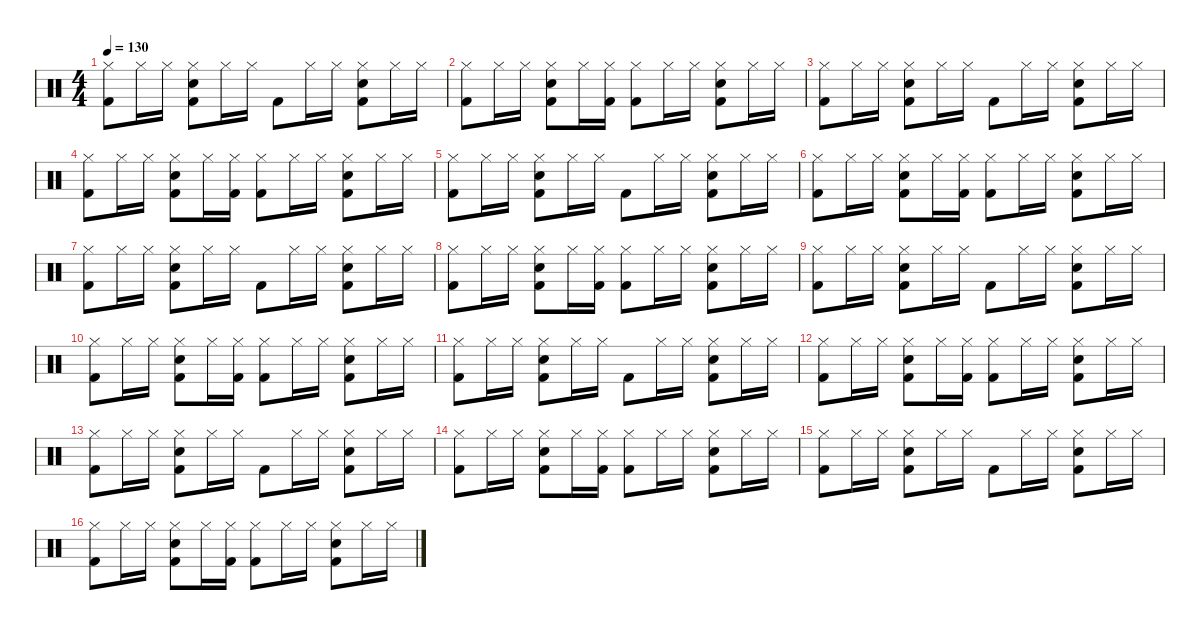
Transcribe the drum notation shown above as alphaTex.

\defaultSystemsLayout 4
\hideDynamics
\bracketExtendMode nobrackets
\singleTrackTrackNamePolicy hidden
\multiTrackTrackNamePolicy hidden
\otherSystemsTrackNameOrientation horizontal
\track ("Percussion" "drm.") {defaultSystemsLayout 4 instrument percussion}
\staff {score}
\articulation defaults
\ts (4 4)
\tempo 130
\clef neutral
\ks c
("Hi-Hat (closed)" "Kick (hit) 2").8{dy f beam Down} "Hi-Hat (closed)".16{beam Down} "Hi-Hat (closed)".16{beam Down} ("Hi-Hat (closed)" "Snare (hit) 2" "Kick (hit) 2").8{beam Down} "Hi-Hat (closed)".16{beam Down} "Hi-Hat (closed)".16{beam Down} "Kick (hit) 2".8{beam Down} "Hi-Hat (closed)".16{beam Down} "Hi-Hat (closed)".16{beam Down} ("Hi-Hat (closed)" "Snare (hit) 2" "Kick (hit) 2").8{beam Down} "Hi-Hat (closed)".16{beam Down} "Hi-Hat (closed)".16{beam Down} |
("Hi-Hat (closed)" "Kick (hit) 2").8{beam Down} "Hi-Hat (closed)".16{beam Down} "Hi-Hat (closed)".16{beam Down} ("Hi-Hat (closed)" "Snare (hit) 2" "Kick (hit) 2").8{beam Down} "Hi-Hat (closed)".16{beam Down} ("Hi-Hat (closed)" "Kick (hit) 2").16{beam Down} ("Hi-Hat (closed)" "Kick (hit) 2").8{beam Down} "Hi-Hat (closed)".16{beam Down} "Hi-Hat (closed)".16{beam Down} ("Hi-Hat (closed)" "Snare (hit) 2" "Kick (hit) 2").8{beam Down} "Hi-Hat (closed)".16{beam Down} "Hi-Hat (closed)".16{beam Down} |
("Hi-Hat (closed)" "Kick (hit) 2").8{beam Down} "Hi-Hat (closed)".16{beam Down} "Hi-Hat (closed)".16{beam Down} ("Hi-Hat (closed)" "Snare (hit) 2" "Kick (hit) 2").8{beam Down} "Hi-Hat (closed)".16{beam Down} "Hi-Hat (closed)".16{beam Down} "Kick (hit) 2".8{beam Down} "Hi-Hat (closed)".16{beam Down} "Hi-Hat (closed)".16{beam Down} ("Hi-Hat (closed)" "Snare (hit) 2" "Kick (hit) 2").8{beam Down} "Hi-Hat (closed)".16{beam Down} "Hi-Hat (closed)".16{beam Down} |
("Hi-Hat (closed)" "Kick (hit) 2").8{beam Down} "Hi-Hat (closed)".16{beam Down} "Hi-Hat (closed)".16{beam Down} ("Hi-Hat (closed)" "Snare (hit) 2" "Kick (hit) 2").8{beam Down} "Hi-Hat (closed)".16{beam Down} ("Hi-Hat (closed)" "Kick (hit) 2").16{beam Down} ("Hi-Hat (closed)" "Kick (hit) 2").8{beam Down} "Hi-Hat (closed)".16{beam Down} "Hi-Hat (closed)".16{beam Down} ("Hi-Hat (closed)" "Snare (hit) 2" "Kick (hit) 2").8{beam Down} "Hi-Hat (closed)".16{beam Down} "Hi-Hat (closed)".16{beam Down} |
("Hi-Hat (closed)" "Kick (hit) 2").8{beam Down} "Hi-Hat (closed)".16{beam Down} "Hi-Hat (closed)".16{beam Down} ("Hi-Hat (closed)" "Snare (hit) 2" "Kick (hit) 2").8{beam Down} "Hi-Hat (closed)".16{beam Down} "Hi-Hat (closed)".16{beam Down} "Kick (hit) 2".8{beam Down} "Hi-Hat (closed)".16{beam Down} "Hi-Hat (closed)".16{beam Down} ("Hi-Hat (closed)" "Snare (hit) 2" "Kick (hit) 2").8{beam Down} "Hi-Hat (closed)".16{beam Down} "Hi-Hat (closed)".16{beam Down} |
("Hi-Hat (closed)" "Kick (hit) 2").8{beam Down} "Hi-Hat (closed)".16{beam Down} "Hi-Hat (closed)".16{beam Down} ("Hi-Hat (closed)" "Snare (hit) 2" "Kick (hit) 2").8{beam Down} "Hi-Hat (closed)".16{beam Down} ("Hi-Hat (closed)" "Kick (hit) 2").16{beam Down} ("Hi-Hat (closed)" "Kick (hit) 2").8{beam Down} "Hi-Hat (closed)".16{beam Down} "Hi-Hat (closed)".16{beam Down} ("Hi-Hat (closed)" "Snare (hit) 2" "Kick (hit) 2").8{beam Down} "Hi-Hat (closed)".16{beam Down} "Hi-Hat (closed)".16{beam Down} |
("Hi-Hat (closed)" "Kick (hit) 2").8{beam Down} "Hi-Hat (closed)".16{beam Down} "Hi-Hat (closed)".16{beam Down} ("Hi-Hat (closed)" "Snare (hit) 2" "Kick (hit) 2").8{beam Down} "Hi-Hat (closed)".16{beam Down} "Hi-Hat (closed)".16{beam Down} "Kick (hit) 2".8{beam Down} "Hi-Hat (closed)".16{beam Down} "Hi-Hat (closed)".16{beam Down} ("Hi-Hat (closed)" "Snare (hit) 2" "Kick (hit) 2").8{beam Down} "Hi-Hat (closed)".16{beam Down} "Hi-Hat (closed)".16{beam Down} |
("Hi-Hat (closed)" "Kick (hit) 2").8{beam Down} "Hi-Hat (closed)".16{beam Down} "Hi-Hat (closed)".16{beam Down} ("Hi-Hat (closed)" "Snare (hit) 2" "Kick (hit) 2").8{beam Down} "Hi-Hat (closed)".16{beam Down} ("Hi-Hat (closed)" "Kick (hit) 2").16{beam Down} ("Hi-Hat (closed)" "Kick (hit) 2").8{beam Down} "Hi-Hat (closed)".16{beam Down} "Hi-Hat (closed)".16{beam Down} ("Hi-Hat (closed)" "Snare (hit) 2" "Kick (hit) 2").8{beam Down} "Hi-Hat (closed)".16{beam Down} "Hi-Hat (closed)".16{beam Down} |
("Hi-Hat (closed)" "Kick (hit) 2").8{beam Down} "Hi-Hat (closed)".16{beam Down} "Hi-Hat (closed)".16{beam Down} ("Hi-Hat (closed)" "Snare (hit) 2" "Kick (hit) 2").8{beam Down} "Hi-Hat (closed)".16{beam Down} "Hi-Hat (closed)".16{beam Down} "Kick (hit) 2".8{beam Down} "Hi-Hat (closed)".16{beam Down} "Hi-Hat (closed)".16{beam Down} ("Hi-Hat (closed)" "Snare (hit) 2" "Kick (hit) 2").8{beam Down} "Hi-Hat (closed)".16{beam Down} "Hi-Hat (closed)".16{beam Down} |
("Hi-Hat (closed)" "Kick (hit) 2").8{beam Down} "Hi-Hat (closed)".16{beam Down} "Hi-Hat (closed)".16{beam Down} ("Hi-Hat (closed)" "Snare (hit) 2" "Kick (hit) 2").8{beam Down} "Hi-Hat (closed)".16{beam Down} ("Hi-Hat (closed)" "Kick (hit) 2").16{beam Down} ("Hi-Hat (closed)" "Kick (hit) 2").8{beam Down} "Hi-Hat (closed)".16{beam Down} "Hi-Hat (closed)".16{beam Down} ("Hi-Hat (closed)" "Snare (hit) 2" "Kick (hit) 2").8{beam Down} "Hi-Hat (closed)".16{beam Down} "Hi-Hat (closed)".16{beam Down} |
("Hi-Hat (closed)" "Kick (hit) 2").8{beam Down} "Hi-Hat (closed)".16{beam Down} "Hi-Hat (closed)".16{beam Down} ("Hi-Hat (closed)" "Snare (hit) 2" "Kick (hit) 2").8{beam Down} "Hi-Hat (closed)".16{beam Down} "Hi-Hat (closed)".16{beam Down} "Kick (hit) 2".8{beam Down} "Hi-Hat (closed)".16{beam Down} "Hi-Hat (closed)".16{beam Down} ("Hi-Hat (closed)" "Snare (hit) 2" "Kick (hit) 2").8{beam Down} "Hi-Hat (closed)".16{beam Down} "Hi-Hat (closed)".16{beam Down} |
("Hi-Hat (closed)" "Kick (hit) 2").8{beam Down} "Hi-Hat (closed)".16{beam Down} "Hi-Hat (closed)".16{beam Down} ("Hi-Hat (closed)" "Snare (hit) 2" "Kick (hit) 2").8{beam Down} "Hi-Hat (closed)".16{beam Down} ("Hi-Hat (closed)" "Kick (hit) 2").16{beam Down} ("Hi-Hat (closed)" "Kick (hit) 2").8{beam Down} "Hi-Hat (closed)".16{beam Down} "Hi-Hat (closed)".16{beam Down} ("Hi-Hat (closed)" "Snare (hit) 2" "Kick (hit) 2").8{beam Down} "Hi-Hat (closed)".16{beam Down} "Hi-Hat (closed)".16{beam Down} |
("Hi-Hat (closed)" "Kick (hit) 2").8{beam Down} "Hi-Hat (closed)".16{beam Down} "Hi-Hat (closed)".16{beam Down} ("Hi-Hat (closed)" "Snare (hit) 2" "Kick (hit) 2").8{beam Down} "Hi-Hat (closed)".16{beam Down} "Hi-Hat (closed)".16{beam Down} "Kick (hit) 2".8{beam Down} "Hi-Hat (closed)".16{beam Down} "Hi-Hat (closed)".16{beam Down} ("Hi-Hat (closed)" "Snare (hit) 2" "Kick (hit) 2").8{beam Down} "Hi-Hat (closed)".16{beam Down} "Hi-Hat (closed)".16{beam Down} |
("Hi-Hat (closed)" "Kick (hit) 2").8{beam Down} "Hi-Hat (closed)".16{beam Down} "Hi-Hat (closed)".16{beam Down} ("Hi-Hat (closed)" "Snare (hit) 2" "Kick (hit) 2").8{beam Down} "Hi-Hat (closed)".16{beam Down} ("Hi-Hat (closed)" "Kick (hit) 2").16{beam Down} ("Hi-Hat (closed)" "Kick (hit) 2").8{beam Down} "Hi-Hat (closed)".16{beam Down} "Hi-Hat (closed)".16{beam Down} ("Hi-Hat (closed)" "Snare (hit) 2" "Kick (hit) 2").8{beam Down} "Hi-Hat (closed)".16{beam Down} "Hi-Hat (closed)".16{beam Down} |
("Hi-Hat (closed)" "Kick (hit) 2").8{beam Down} "Hi-Hat (closed)".16{beam Down} "Hi-Hat (closed)".16{beam Down} ("Hi-Hat (closed)" "Snare (hit) 2" "Kick (hit) 2").8{beam Down} "Hi-Hat (closed)".16{beam Down} "Hi-Hat (closed)".16{beam Down} "Kick (hit) 2".8{beam Down} "Hi-Hat (closed)".16{beam Down} "Hi-Hat (closed)".16{beam Down} ("Hi-Hat (closed)" "Snare (hit) 2" "Kick (hit) 2").8{beam Down} "Hi-Hat (closed)".16{beam Down} "Hi-Hat (closed)".16{beam Down} |
("Hi-Hat (closed)" "Kick (hit) 2").8{beam Down} "Hi-Hat (closed)".16{beam Down} "Hi-Hat (closed)".16{beam Down} ("Hi-Hat (closed)" "Snare (hit) 2" "Kick (hit) 2").8{beam Down} "Hi-Hat (closed)".16{beam Down} ("Hi-Hat (closed)" "Kick (hit) 2").16{beam Down} ("Hi-Hat (closed)" "Kick (hit) 2").8{beam Down} "Hi-Hat (closed)".16{beam Down} "Hi-Hat (closed)".16{beam Down} ("Hi-Hat (closed)" "Snare (hit) 2" "Kick (hit) 2").8{beam Down} "Hi-Hat (closed)".16{beam Down} "Hi-Hat (closed)".16{beam Down}
